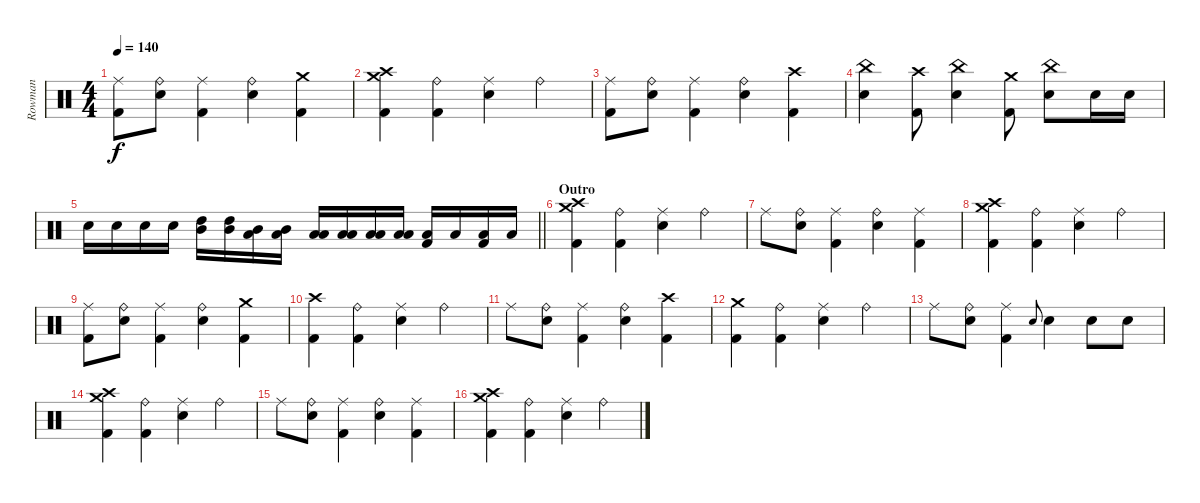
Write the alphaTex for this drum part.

\track ("Rowman" "Rowman") {instrument percussion}
\staff {score}
\articulation defaults
\ts (4 4)
\tempo 140
\clef neutral
\ks c
("Ride (middle)" "Kick (hit) 2").8{dy f} ("Ride (bell)" "Snare (hit) 2").8 ("Ride (middle)" "Kick (hit) 2").4 ("Ride (bell)" "Snare (hit) 2").4 ("Crash medium (hit)" "Kick (hit) 2").4 |
("Crash medium (hit)" "Crash high (hit)" "Kick (hit) 2").4 ("Ride (bell)" "Kick (hit) 2").4 ("Ride (middle)" "Snare (hit) 2").4 "Ride (bell)".4 |
("Ride (middle)" "Kick (hit) 2").8 ("Ride (bell)" "Snare (hit) 2").8 ("Ride (middle)" "Kick (hit) 2").4 ("Ride (bell)" "Snare (hit) 2").4 ("Crash high (hit)" "Kick (hit) 2").4 |
("China (hit)" "Snare (hit) 2").4 ("Crash high (hit)" "Kick (hit) 2").8 ("China (hit)" "Snare (hit) 2").4 ("Crash medium (hit)" "Kick (hit) 2").8 ("China (hit)" "Snare (hit) 2").8 "Snare (hit) 2".16 "Snare (hit) 2".16 |
\barLineRight lightlight "Snare (hit) 2".16 "Snare (hit) 2".16 "Snare (hit) 2".16 "Snare (hit) 2".16
("Mid Tom (hit)" "High Tom (hit)").16 ("Mid Tom (hit)" "High Tom (hit)").16 ("Low Tom (hit)" "Mid Tom (hit)").16 ("Low Tom (hit)" "Mid Tom (hit)").16 ("Low Floor Tom (hit)" "Low Tom (hit)").16 ("Low Floor Tom (hit)" "Low Tom (hit)").16 ("Low Tom (hit)" "Low Floor Tom (hit)").16 ("Low Tom (hit)" "Low Floor Tom (hit)").16 ("Low Floor Tom (hit)" "Kick (hit) 2").16 "Low Floor Tom (hit)".16 ("Low Floor Tom (hit)" "Kick (hit) 2").16 "Low Floor Tom (hit)".16 |
\section ("" "Outro")
("Crash high (hit)" "Crash medium (hit)" "Kick (hit) 2").4 ("Ride (bell)" "Kick (hit) 2").4 ("Ride (middle)" "Snare (hit) 2").4 "Ride (bell)".4 |
"Ride (middle)".8 ("Ride (bell)" "Snare (hit) 2").8 ("Ride (middle)" "Kick (hit) 2").4 ("Ride (bell)" "Snare (hit) 2").4 ("Ride (middle)" "Kick (hit) 2").4 |
("Crash high (hit)" "Crash medium (hit)" "Kick (hit) 2").4 ("Ride (bell)" "Kick (hit) 2").4 ("Ride (middle)" "Snare (hit) 2").4 "Ride (bell)".4 |
("Ride (middle)" "Kick (hit) 2").8 ("Ride (bell)" "Snare (hit) 2").8 ("Ride (middle)" "Kick (hit) 2").4 ("Ride (bell)" "Snare (hit) 2").4 ("Crash medium (hit)" "Kick (hit) 2").4 |
("Crash high (hit)" "Kick (hit) 2").4 ("Ride (bell)" "Kick (hit) 2").4 ("Ride (middle)" "Snare (hit) 2").4 "Ride (bell)".4 |
"Ride (middle)".8 ("Ride (bell)" "Snare (hit) 2").8 ("Ride (middle)" "Kick (hit) 2").4 ("Ride (bell)" "Snare (hit) 2").4 ("Crash high (hit)" "Kick (hit) 2").4 |
("Crash medium (hit)" "Kick (hit) 2").4 ("Ride (bell)" "Kick (hit) 2").4 ("Ride (middle)" "Snare (hit) 2").4 "Ride (bell)".4 |
"Ride (middle)".8 ("Ride (bell)" "Snare (hit) 2").8 ("Ride (middle)" "Kick (hit) 2").4 "Snare (hit) 2".8{gr onbeat} "Snare (hit) 2".4 "Snare (hit) 2".8 "Snare (hit) 2".8 |
("Crash high (hit)" "Crash medium (hit)" "Kick (hit) 2").4 ("Ride (bell)" "Kick (hit) 2").4 ("Ride (middle)" "Snare (hit) 2").4 "Ride (bell)".4 |
"Ride (middle)".8 ("Ride (bell)" "Snare (hit) 2").8 ("Ride (middle)" "Kick (hit) 2").4 ("Ride (bell)" "Snare (hit) 2").4 ("Ride (middle)" "Kick (hit) 2").4 |
("Crash high (hit)" "Crash medium (hit)" "Kick (hit) 2").4 ("Ride (bell)" "Kick (hit) 2").4 ("Ride (middle)" "Snare (hit) 2").4 "Ride (bell)".4
